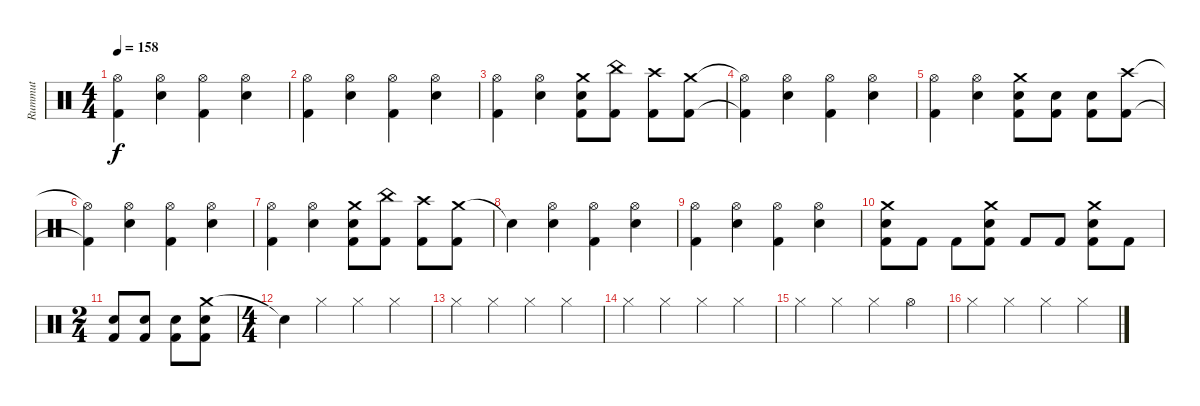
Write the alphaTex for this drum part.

\track ("Rummut" "Rummut") {instrument percussion}
\staff {score}
\articulation defaults
\ts (4 4)
\tempo 158
\clef neutral
\ks c
("Hi-Hat (open)" "Kick (hit) 2").4{dy f} ("Hi-Hat (open)" "Electric Snare (hit)").4 ("Hi-Hat (open)" "Kick (hit) 2").4 ("Hi-Hat (open)" "Electric Snare (hit)").4 |
("Hi-Hat (open)" "Kick (hit) 2").4 ("Hi-Hat (open)" "Electric Snare (hit)").4 ("Hi-Hat (open)" "Kick (hit) 2").4 ("Hi-Hat (open)" "Electric Snare (hit)").4 |
("Hi-Hat (open)" "Kick (hit) 2").4 ("Hi-Hat (open)" "Electric Snare (hit)").4 ("Crash medium (hit)" "Electric Snare (hit)" "Kick (hit) 2").8 ("China (hit)" "Kick (hit) 2").8 ("Crash high (hit)" "Kick (hit) 2").8 ("Crash medium (hit)" "Kick (hit) 2").8 |
("Hi-Hat (open)"{t} "Kick (hit) 2"{t}).4 ("Hi-Hat (open)" "Electric Snare (hit)").4 ("Hi-Hat (open)" "Kick (hit) 2").4 ("Hi-Hat (open)" "Electric Snare (hit)").4 |
("Hi-Hat (open)" "Kick (hit) 2").4 ("Hi-Hat (open)" "Electric Snare (hit)").4 ("Crash medium (hit)" "Electric Snare (hit)" "Kick (hit) 2").8 ("Electric Snare (hit)" "Kick (hit) 2").8 ("Electric Snare (hit)" "Kick (hit) 2").8 ("Crash high (hit)" "Kick (hit) 2").8 |
("Hi-Hat (open)"{t} "Kick (hit) 2"{t}).4 ("Hi-Hat (open)" "Electric Snare (hit)").4 ("Hi-Hat (open)" "Kick (hit) 2").4 ("Hi-Hat (open)" "Electric Snare (hit)").4 |
("Hi-Hat (open)" "Kick (hit) 2").4 ("Hi-Hat (open)" "Electric Snare (hit)").4 ("Crash medium (hit)" "Electric Snare (hit)" "Kick (hit) 2").8 ("China (hit)" "Kick (hit) 2").8 ("Crash high (hit)" "Kick (hit) 2").8 ("Crash medium (hit)" "Kick (hit) 2").8 |
"Snare (hit)"{t}.4 ("Hi-Hat (open)" "Electric Snare (hit)").4 ("Hi-Hat (open)" "Kick (hit) 2").4 ("Hi-Hat (open)" "Electric Snare (hit)").4 |
("Hi-Hat (open)" "Kick (hit) 2").4 ("Hi-Hat (open)" "Electric Snare (hit)").4 ("Hi-Hat (open)" "Kick (hit) 2").4 ("Hi-Hat (open)" "Electric Snare (hit)").4 |
("Crash medium (hit)" "Electric Snare (hit)" "Kick (hit) 2").8 "Kick (hit) 2".8 "Kick (hit) 2".8 ("Crash medium (hit)" "Electric Snare (hit)" "Kick (hit) 2").8 "Kick (hit) 2".8 "Kick (hit) 2".8 ("Crash medium (hit)" "Electric Snare (hit)" "Kick (hit) 2").8 "Kick (hit) 2".8 |
\ts (2 4)
("Electric Snare (hit)" "Kick (hit) 2").8 ("Electric Snare (hit)" "Kick (hit) 2").8 ("Electric Snare (hit)" "Kick (hit) 2").8 ("Crash medium (hit)" "Electric Snare (hit)" "Kick (hit) 2").8 |
\ts (4 4)
"Snare (hit)"{t}.4 "Hi-Hat (closed)".4 "Hi-Hat (closed)".4 "Hi-Hat (closed)".4 |
"Hi-Hat (closed)".4 "Hi-Hat (closed)".4 "Hi-Hat (closed)".4 "Hi-Hat (closed)".4 |
"Hi-Hat (closed)".4 "Hi-Hat (closed)".4 "Hi-Hat (closed)".4 "Hi-Hat (closed)".4 |
"Hi-Hat (closed)".4 "Hi-Hat (closed)".4 "Hi-Hat (closed)".4 "Hi-Hat (open)".4 |
"Hi-Hat (closed)".4 "Hi-Hat (closed)".4 "Hi-Hat (closed)".4 "Hi-Hat (closed)".4
